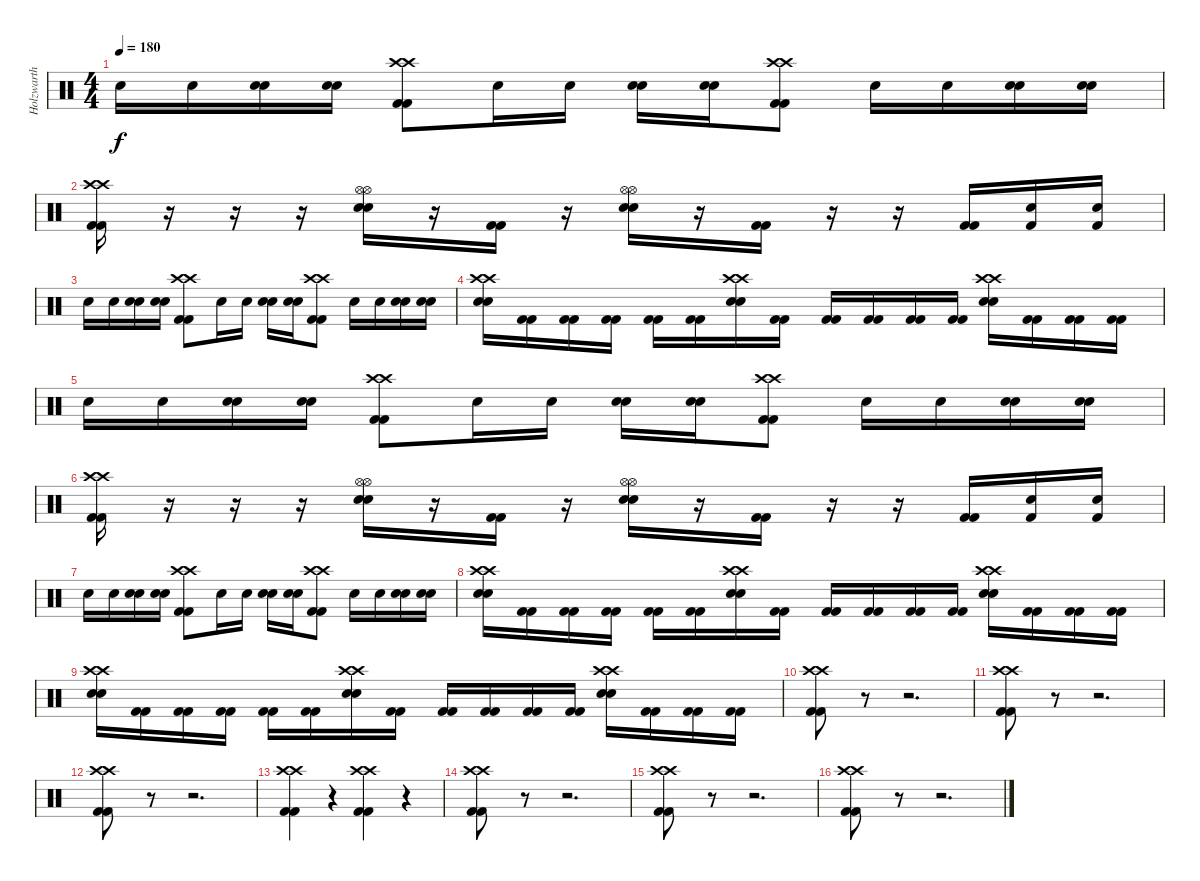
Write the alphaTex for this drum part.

\track ("Holzwarth" "Holzwarth") {instrument percussion}
\staff {score}
\articulation defaults
\ts (4 4)
\tempo 180
\clef neutral
\ks c "Snare (hit) 2".16{dy f} "Snare (hit) 2".16
("Snare (hit) 2" "Snare (hit) 2").16 ("Snare (hit) 2" "Snare (hit) 2").16 ("Kick (hit) 2" "Kick (hit) 2" "Crash high (hit)" "Crash high (hit)").8 "Snare (hit) 2".16 "Snare (hit) 2".16 ("Snare (hit) 2" "Snare (hit) 2").16 ("Snare (hit) 2" "Snare (hit) 2").16 ("Kick (hit) 2" "Kick (hit) 2" "Crash high (hit)" "Crash high (hit)").8 "Snare (hit) 2".16 "Snare (hit) 2".16 ("Snare (hit) 2" "Snare (hit) 2").16 ("Snare (hit) 2" "Snare (hit) 2").16 |
("Kick (hit) 2" "Kick (hit) 2" "Crash high (hit)" "Crash high (hit)").16 r.16 r.16 r.16 ("Snare (hit) 2" "Snare (hit) 2" "Hi-Hat (open)" "Hi-Hat (open)").16 r.16 ("Kick (hit) 2" "Kick (hit) 2").16 r.16 ("Snare (hit) 2" "Snare (hit) 2" "Hi-Hat (open)" "Hi-Hat (open)").16 r.16 ("Kick (hit) 2" "Kick (hit) 2").16 r.16 r.16 ("Kick (hit) 2" "Kick (hit) 2").16 ("Kick (hit) 2" "Snare (hit) 2").16 ("Kick (hit) 2" "Snare (hit) 2").16 |
"Snare (hit) 2".16 "Snare (hit) 2".16 ("Snare (hit) 2" "Snare (hit) 2").16 ("Snare (hit) 2" "Snare (hit) 2").16 ("Kick (hit) 2" "Kick (hit) 2" "Crash high (hit)" "Crash high (hit)").8 "Snare (hit) 2".16 "Snare (hit) 2".16 ("Snare (hit) 2" "Snare (hit) 2").16 ("Snare (hit) 2" "Snare (hit) 2").16 ("Kick (hit) 2" "Kick (hit) 2" "Crash high (hit)" "Crash high (hit)").8 "Snare (hit) 2".16 "Snare (hit) 2".16 ("Snare (hit) 2" "Snare (hit) 2").16 ("Snare (hit) 2" "Snare (hit) 2").16 |
("Snare (hit) 2" "Snare (hit) 2" "Crash high (hit)" "Crash high (hit)").16 ("Kick (hit) 2" "Kick (hit) 2").16 ("Kick (hit) 2" "Kick (hit) 2").16 ("Kick (hit) 2" "Kick (hit) 2").16 ("Kick (hit) 2" "Kick (hit) 2").16 ("Kick (hit) 2" "Kick (hit) 2").16 ("Snare (hit) 2" "Snare (hit) 2" "Crash high (hit)" "Crash high (hit)").16 ("Kick (hit) 2" "Kick (hit) 2").16 ("Kick (hit) 2" "Kick (hit) 2").16 ("Kick (hit) 2" "Kick (hit) 2").16 ("Kick (hit) 2" "Kick (hit) 2").16 ("Kick (hit) 2" "Kick (hit) 2").16 ("Snare (hit) 2" "Snare (hit) 2" "Crash high (hit)" "Crash high (hit)").16 ("Kick (hit) 2" "Kick (hit) 2").16 ("Kick (hit) 2" "Kick (hit) 2").16 ("Kick (hit) 2" "Kick (hit) 2").16 |
"Snare (hit) 2".16 "Snare (hit) 2".16 ("Snare (hit) 2" "Snare (hit) 2").16 ("Snare (hit) 2" "Snare (hit) 2").16 ("Kick (hit) 2" "Kick (hit) 2" "Crash high (hit)" "Crash high (hit)").8 "Snare (hit) 2".16 "Snare (hit) 2".16 ("Snare (hit) 2" "Snare (hit) 2").16 ("Snare (hit) 2" "Snare (hit) 2").16 ("Kick (hit) 2" "Kick (hit) 2" "Crash high (hit)" "Crash high (hit)").8 "Snare (hit) 2".16 "Snare (hit) 2".16 ("Snare (hit) 2" "Snare (hit) 2").16 ("Snare (hit) 2" "Snare (hit) 2").16 |
("Kick (hit) 2" "Kick (hit) 2" "Crash high (hit)" "Crash high (hit)").16 r.16 r.16 r.16 ("Snare (hit) 2" "Snare (hit) 2" "Hi-Hat (open)" "Hi-Hat (open)").16 r.16 ("Kick (hit) 2" "Kick (hit) 2").16 r.16 ("Snare (hit) 2" "Snare (hit) 2" "Hi-Hat (open)" "Hi-Hat (open)").16 r.16 ("Kick (hit) 2" "Kick (hit) 2").16 r.16 r.16 ("Kick (hit) 2" "Kick (hit) 2").16 ("Kick (hit) 2" "Snare (hit) 2").16 ("Kick (hit) 2" "Snare (hit) 2").16 |
"Snare (hit) 2".16 "Snare (hit) 2".16 ("Snare (hit) 2" "Snare (hit) 2").16 ("Snare (hit) 2" "Snare (hit) 2").16 ("Kick (hit) 2" "Kick (hit) 2" "Crash high (hit)" "Crash high (hit)").8 "Snare (hit) 2".16 "Snare (hit) 2".16 ("Snare (hit) 2" "Snare (hit) 2").16 ("Snare (hit) 2" "Snare (hit) 2").16 ("Kick (hit) 2" "Kick (hit) 2" "Crash high (hit)" "Crash high (hit)").8 "Snare (hit) 2".16 "Snare (hit) 2".16 ("Snare (hit) 2" "Snare (hit) 2").16 ("Snare (hit) 2" "Snare (hit) 2").16 |
("Snare (hit) 2" "Snare (hit) 2" "Crash high (hit)" "Crash high (hit)").16 ("Kick (hit) 2" "Kick (hit) 2").16 ("Kick (hit) 2" "Kick (hit) 2").16 ("Kick (hit) 2" "Kick (hit) 2").16 ("Kick (hit) 2" "Kick (hit) 2").16 ("Kick (hit) 2" "Kick (hit) 2").16 ("Snare (hit) 2" "Snare (hit) 2" "Crash high (hit)" "Crash high (hit)").16 ("Kick (hit) 2" "Kick (hit) 2").16 ("Kick (hit) 2" "Kick (hit) 2").16 ("Kick (hit) 2" "Kick (hit) 2").16 ("Kick (hit) 2" "Kick (hit) 2").16 ("Kick (hit) 2" "Kick (hit) 2").16 ("Snare (hit) 2" "Snare (hit) 2" "Crash high (hit)" "Crash high (hit)").16 ("Kick (hit) 2" "Kick (hit) 2").16 ("Kick (hit) 2" "Kick (hit) 2").16 ("Kick (hit) 2" "Kick (hit) 2").16 |
("Snare (hit) 2" "Snare (hit) 2" "Crash high (hit)" "Crash high (hit)").16 ("Kick (hit) 2" "Kick (hit) 2").16 ("Kick (hit) 2" "Kick (hit) 2").16 ("Kick (hit) 2" "Kick (hit) 2").16 ("Kick (hit) 2" "Kick (hit) 2").16 ("Kick (hit) 2" "Kick (hit) 2").16 ("Snare (hit) 2" "Snare (hit) 2" "Crash high (hit)" "Crash high (hit)").16 ("Kick (hit) 2" "Kick (hit) 2").16 ("Kick (hit) 2" "Kick (hit) 2").16 ("Kick (hit) 2" "Kick (hit) 2").16 ("Kick (hit) 2" "Kick (hit) 2").16 ("Kick (hit) 2" "Kick (hit) 2").16 ("Snare (hit) 2" "Snare (hit) 2" "Crash high (hit)" "Crash high (hit)").16 ("Kick (hit) 2" "Kick (hit) 2").16 ("Kick (hit) 2" "Kick (hit) 2").16 ("Kick (hit) 2" "Kick (hit) 2").16 |
("Kick (hit) 2" "Kick (hit) 2" "Crash high (hit)" "Crash high (hit)").8 r.8 r.2{d} |
("Kick (hit) 2" "Kick (hit) 2" "Crash high (hit)" "Crash high (hit)").8 r.8 r.2{d} |
("Kick (hit) 2" "Kick (hit) 2" "Crash high (hit)" "Crash high (hit)").8 r.8 r.2{d} |
("Kick (hit) 2" "Kick (hit) 2" "Crash high (hit)" "Crash high (hit)").4 r.4 ("Kick (hit) 2" "Kick (hit) 2" "Crash high (hit)" "Crash high (hit)").4 r.4 |
("Kick (hit) 2" "Kick (hit) 2" "Crash high (hit)" "Crash high (hit)").8 r.8 r.2{d} |
("Kick (hit) 2" "Kick (hit) 2" "Crash high (hit)" "Crash high (hit)").8 r.8 r.2{d} |
("Kick (hit) 2" "Kick (hit) 2" "Crash high (hit)" "Crash high (hit)").8 r.8 r.2{d}
